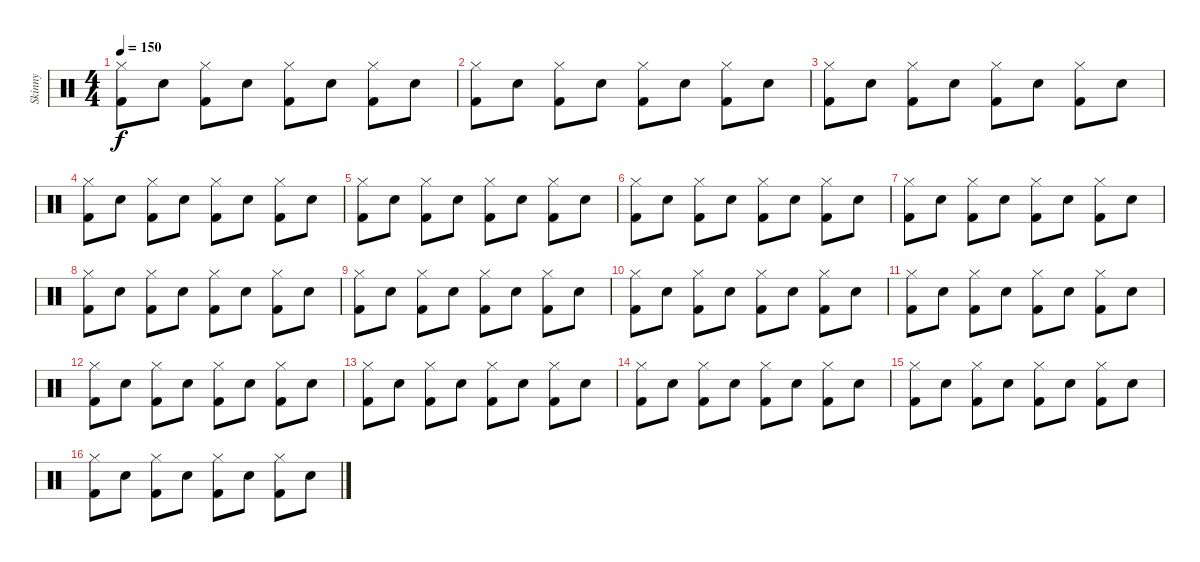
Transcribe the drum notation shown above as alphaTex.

\track ("Skinny" "Skinny") {instrument percussion}
\staff {score}
\articulation defaults
\ts (4 4)
\tempo 150
\clef neutral
\ks c
("Hi-Hat (closed)" "Kick (hit) 2").8{dy f} "Electric Snare (hit)".8 ("Hi-Hat (closed)" "Kick (hit) 2").8 "Electric Snare (hit)".8 ("Hi-Hat (closed)" "Kick (hit) 2").8 "Electric Snare (hit)".8 ("Hi-Hat (closed)" "Kick (hit) 2").8 "Electric Snare (hit)".8 |
("Hi-Hat (closed)" "Kick (hit) 2").8 "Electric Snare (hit)".8 ("Hi-Hat (closed)" "Kick (hit) 2").8 "Electric Snare (hit)".8 ("Hi-Hat (closed)" "Kick (hit) 2").8 "Electric Snare (hit)".8 ("Hi-Hat (closed)" "Kick (hit) 2").8 "Electric Snare (hit)".8 |
("Hi-Hat (closed)" "Kick (hit) 2").8 "Electric Snare (hit)".8 ("Hi-Hat (closed)" "Kick (hit) 2").8 "Electric Snare (hit)".8 ("Hi-Hat (closed)" "Kick (hit) 2").8 "Electric Snare (hit)".8 ("Hi-Hat (closed)" "Kick (hit) 2").8 "Electric Snare (hit)".8 |
("Hi-Hat (closed)" "Kick (hit) 2").8 "Electric Snare (hit)".8 ("Hi-Hat (closed)" "Kick (hit) 2").8 "Electric Snare (hit)".8 ("Hi-Hat (closed)" "Kick (hit) 2").8 "Electric Snare (hit)".8 ("Hi-Hat (closed)" "Kick (hit) 2").8 "Electric Snare (hit)".8 |
("Hi-Hat (closed)" "Kick (hit) 2").8 "Electric Snare (hit)".8 ("Hi-Hat (closed)" "Kick (hit) 2").8 "Electric Snare (hit)".8 ("Hi-Hat (closed)" "Kick (hit) 2").8 "Electric Snare (hit)".8 ("Hi-Hat (closed)" "Kick (hit) 2").8 "Electric Snare (hit)".8 |
("Hi-Hat (closed)" "Kick (hit) 2").8 "Electric Snare (hit)".8 ("Hi-Hat (closed)" "Kick (hit) 2").8 "Electric Snare (hit)".8 ("Hi-Hat (closed)" "Kick (hit) 2").8 "Electric Snare (hit)".8 ("Hi-Hat (closed)" "Kick (hit) 2").8 "Electric Snare (hit)".8 |
("Hi-Hat (closed)" "Kick (hit) 2").8 "Electric Snare (hit)".8 ("Hi-Hat (closed)" "Kick (hit) 2").8 "Electric Snare (hit)".8 ("Hi-Hat (closed)" "Kick (hit) 2").8 "Electric Snare (hit)".8 ("Hi-Hat (closed)" "Kick (hit) 2").8 "Electric Snare (hit)".8 |
("Hi-Hat (closed)" "Kick (hit) 2").8 "Electric Snare (hit)".8 ("Hi-Hat (closed)" "Kick (hit) 2").8 "Electric Snare (hit)".8 ("Hi-Hat (closed)" "Kick (hit) 2").8 "Electric Snare (hit)".8 ("Hi-Hat (closed)" "Kick (hit) 2").8 "Electric Snare (hit)".8 |
("Hi-Hat (closed)" "Kick (hit) 2").8 "Electric Snare (hit)".8 ("Hi-Hat (closed)" "Kick (hit) 2").8 "Electric Snare (hit)".8 ("Hi-Hat (closed)" "Kick (hit) 2").8 "Electric Snare (hit)".8 ("Hi-Hat (closed)" "Kick (hit) 2").8 "Electric Snare (hit)".8 |
("Hi-Hat (closed)" "Kick (hit) 2").8 "Electric Snare (hit)".8 ("Hi-Hat (closed)" "Kick (hit) 2").8 "Electric Snare (hit)".8 ("Hi-Hat (closed)" "Kick (hit) 2").8 "Electric Snare (hit)".8 ("Hi-Hat (closed)" "Kick (hit) 2").8 "Electric Snare (hit)".8 |
("Hi-Hat (closed)" "Kick (hit) 2").8 "Electric Snare (hit)".8 ("Hi-Hat (closed)" "Kick (hit) 2").8 "Electric Snare (hit)".8 ("Hi-Hat (closed)" "Kick (hit) 2").8 "Electric Snare (hit)".8 ("Hi-Hat (closed)" "Kick (hit) 2").8 "Electric Snare (hit)".8 |
("Hi-Hat (closed)" "Kick (hit) 2").8 "Electric Snare (hit)".8 ("Hi-Hat (closed)" "Kick (hit) 2").8 "Electric Snare (hit)".8 ("Hi-Hat (closed)" "Kick (hit) 2").8 "Electric Snare (hit)".8 ("Hi-Hat (closed)" "Kick (hit) 2").8 "Electric Snare (hit)".8 |
("Hi-Hat (closed)" "Kick (hit) 2").8 "Electric Snare (hit)".8 ("Hi-Hat (closed)" "Kick (hit) 2").8 "Electric Snare (hit)".8 ("Hi-Hat (closed)" "Kick (hit) 2").8 "Electric Snare (hit)".8 ("Hi-Hat (closed)" "Kick (hit) 2").8 "Electric Snare (hit)".8 |
("Hi-Hat (closed)" "Kick (hit) 2").8 "Electric Snare (hit)".8 ("Hi-Hat (closed)" "Kick (hit) 2").8 "Electric Snare (hit)".8 ("Hi-Hat (closed)" "Kick (hit) 2").8 "Electric Snare (hit)".8 ("Hi-Hat (closed)" "Kick (hit) 2").8 "Electric Snare (hit)".8 |
("Hi-Hat (closed)" "Kick (hit) 2").8 "Electric Snare (hit)".8 ("Hi-Hat (closed)" "Kick (hit) 2").8 "Electric Snare (hit)".8 ("Hi-Hat (closed)" "Kick (hit) 2").8 "Electric Snare (hit)".8 ("Hi-Hat (closed)" "Kick (hit) 2").8 "Electric Snare (hit)".8 |
("Hi-Hat (closed)" "Kick (hit) 2").8 "Electric Snare (hit)".8 ("Hi-Hat (closed)" "Kick (hit) 2").8 "Electric Snare (hit)".8 ("Hi-Hat (closed)" "Kick (hit) 2").8 "Electric Snare (hit)".8 ("Hi-Hat (closed)" "Kick (hit) 2").8 "Electric Snare (hit)".8
